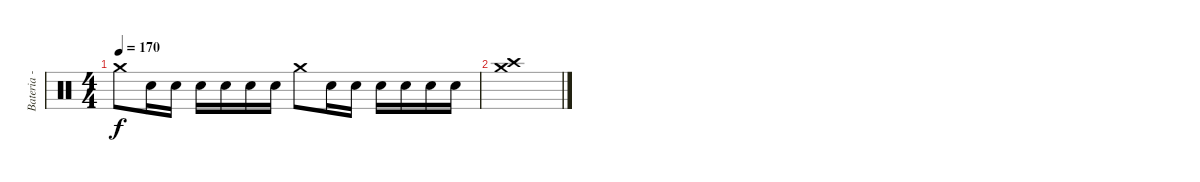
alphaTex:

\track ("Bateria - Larzon" "Bateria - ") {instrument percussion}
\staff {score}
\articulation defaults
\ts (4 4)
\tempo 170
\clef neutral
\ks c "Crash medium (hit)".8{dy f volume 14} "Snare (hit) 2".16 "Snare (hit) 2".16 "Snare (hit) 2".16 "Snare (hit) 2".16 "Snare (hit) 2".16 "Snare (hit) 2".16 "Crash medium (hit)".8 "Snare (hit) 2".16 "Snare (hit) 2".16 "Snare (hit) 2".16 "Snare (hit) 2".16 "Snare (hit) 2".16 "Snare (hit) 2".16
|
("Crash medium (hit)" "Crash high (hit)").1
